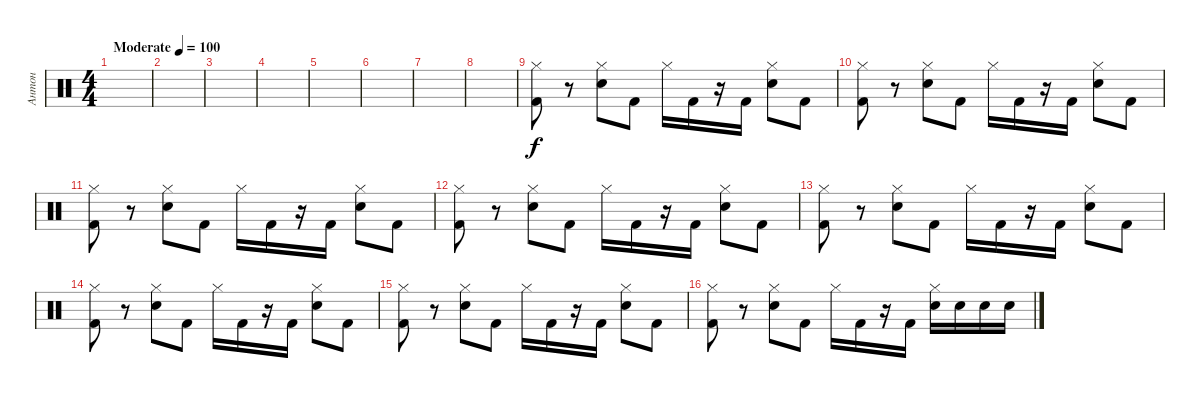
\track ("Антон" "Антон") {instrument percussion}
\staff {score}
\articulation defaults
\ts (4 4)
\tempo (100 "Moderate")
\clef neutral
\ks c
|
|
|
|
|
|
|
|
("Hi-Hat (closed)" "Kick (hit) 2").8 r.8 ("Hi-Hat (closed)" "Electric Snare (hit)").8 "Kick (hit) 2".8 "Hi-Hat (closed)".16 "Kick (hit) 2".16 r.16 "Kick (hit) 2".16 ("Hi-Hat (closed)" "Electric Snare (hit)").8 "Kick (hit) 2".8 |
("Hi-Hat (closed)" "Kick (hit) 2").8 r.8 ("Hi-Hat (closed)" "Electric Snare (hit)").8 "Kick (hit) 2".8 "Hi-Hat (closed)".16 "Kick (hit) 2".16 r.16 "Kick (hit) 2".16 ("Hi-Hat (closed)" "Electric Snare (hit)").8 "Kick (hit) 2".8 |
("Hi-Hat (closed)" "Kick (hit) 2").8 r.8 ("Hi-Hat (closed)" "Electric Snare (hit)").8 "Kick (hit) 2".8 "Hi-Hat (closed)".16 "Kick (hit) 2".16 r.16 "Kick (hit) 2".16 ("Hi-Hat (closed)" "Electric Snare (hit)").8 "Kick (hit) 2".8 |
("Hi-Hat (closed)" "Kick (hit) 2").8 r.8 ("Hi-Hat (closed)" "Electric Snare (hit)").8 "Kick (hit) 2".8 "Hi-Hat (closed)".16 "Kick (hit) 2".16 r.16 "Kick (hit) 2".16 ("Hi-Hat (closed)" "Electric Snare (hit)").8 "Kick (hit) 2".8 |
("Hi-Hat (closed)" "Kick (hit) 2").8 r.8 ("Hi-Hat (closed)" "Electric Snare (hit)").8 "Kick (hit) 2".8 "Hi-Hat (closed)".16 "Kick (hit) 2".16 r.16 "Kick (hit) 2".16 ("Hi-Hat (closed)" "Electric Snare (hit)").8 "Kick (hit) 2".8 |
("Hi-Hat (closed)" "Kick (hit) 2").8 r.8 ("Hi-Hat (closed)" "Electric Snare (hit)").8 "Kick (hit) 2".8 "Hi-Hat (closed)".16 "Kick (hit) 2".16 r.16 "Kick (hit) 2".16 ("Hi-Hat (closed)" "Electric Snare (hit)").8 "Kick (hit) 2".8 |
("Hi-Hat (closed)" "Kick (hit) 2").8 r.8 ("Hi-Hat (closed)" "Electric Snare (hit)").8 "Kick (hit) 2".8 "Hi-Hat (closed)".16 "Kick (hit) 2".16 r.16 "Kick (hit) 2".16 ("Hi-Hat (closed)" "Electric Snare (hit)").8 "Kick (hit) 2".8 |
("Hi-Hat (closed)" "Kick (hit) 2").8 r.8 ("Hi-Hat (closed)" "Electric Snare (hit)").8 "Kick (hit) 2".8 "Hi-Hat (closed)".16 "Kick (hit) 2".16 r.16 "Kick (hit) 2".16 ("Hi-Hat (closed)" "Electric Snare (hit)").16 "Electric Snare (hit)".16 "Electric Snare (hit)".16 "Electric Snare (hit)".16
